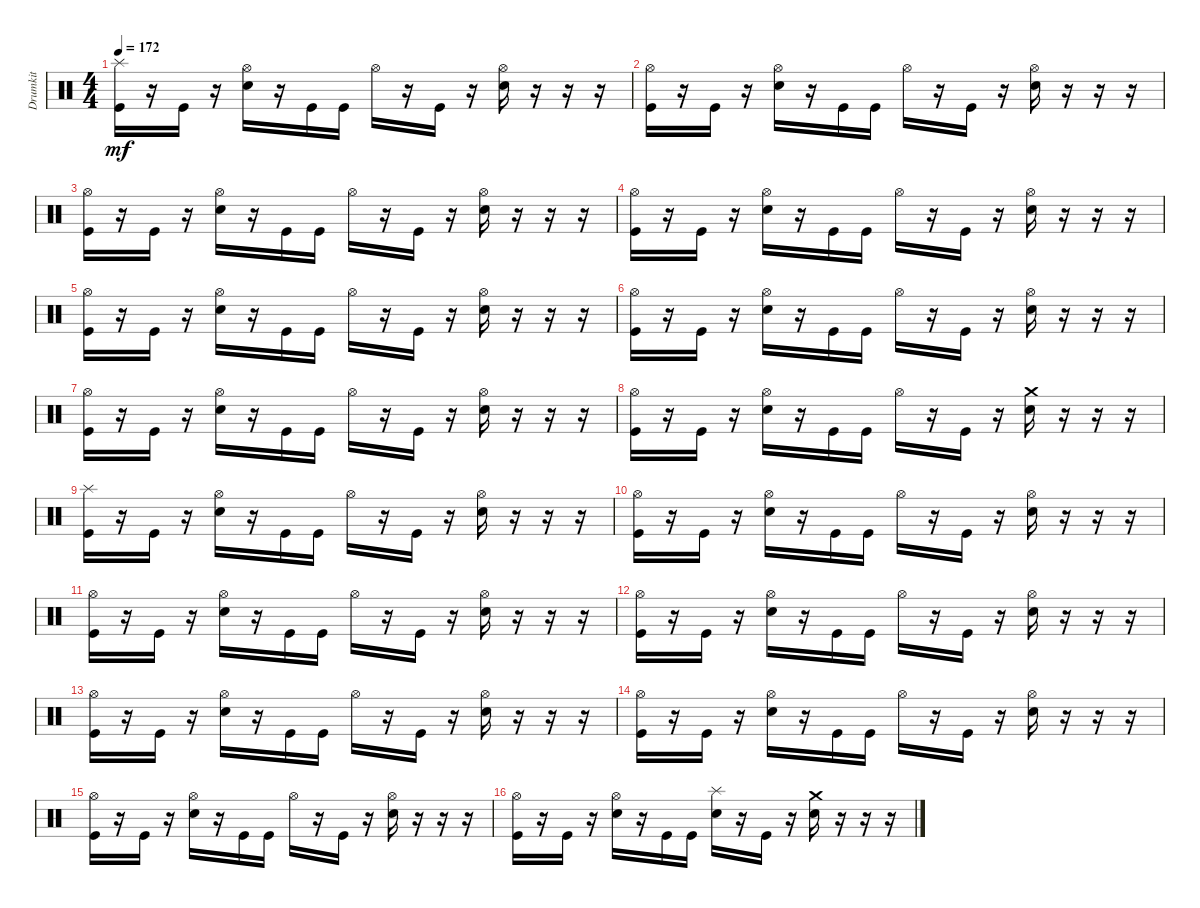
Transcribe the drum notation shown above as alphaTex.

\track ("Drumkit" "Drumkit") {instrument percussion}
\staff {score}
\articulation defaults
\ts (4 4)
\tempo 172
\clef neutral
\ks c
("Kick (hit)" "Splash (hit)").16{dy mf} r.16 "Kick (hit)".16 r.16 ("Hi-Hat (open)" "Snare (hit) 2").16 r.16 "Kick (hit)".16 "Kick (hit)".16 "Hi-Hat (open)".16 r.16 "Kick (hit)".16 r.16 ("Hi-Hat (open)" "Snare (hit) 2").16 r.16 r.16 r.16 |
("Hi-Hat (open)" "Kick (hit)").16 r.16 "Kick (hit)".16 r.16 ("Hi-Hat (open)" "Snare (hit) 2").16 r.16 "Kick (hit)".16 "Kick (hit)".16 "Hi-Hat (open)".16 r.16 "Kick (hit)".16 r.16 ("Hi-Hat (open)" "Snare (hit) 2").16 r.16 r.16 r.16 |
("Hi-Hat (open)" "Kick (hit)").16 r.16 "Kick (hit)".16 r.16 ("Hi-Hat (open)" "Snare (hit) 2").16 r.16 "Kick (hit)".16 "Kick (hit)".16 "Hi-Hat (open)".16 r.16 "Kick (hit)".16 r.16 ("Hi-Hat (open)" "Snare (hit) 2").16 r.16 r.16 r.16 |
("Hi-Hat (open)" "Kick (hit)").16 r.16 "Kick (hit)".16 r.16 ("Hi-Hat (open)" "Snare (hit) 2").16 r.16 "Kick (hit)".16 "Kick (hit)".16 "Hi-Hat (open)".16 r.16 "Kick (hit)".16 r.16 ("Hi-Hat (open)" "Snare (hit) 2").16 r.16 r.16 r.16 |
("Hi-Hat (open)" "Kick (hit)").16 r.16 "Kick (hit)".16 r.16 ("Hi-Hat (open)" "Snare (hit) 2").16 r.16 "Kick (hit)".16 "Kick (hit)".16 "Hi-Hat (open)".16 r.16 "Kick (hit)".16 r.16 ("Hi-Hat (open)" "Snare (hit) 2").16 r.16 r.16 r.16 |
("Hi-Hat (open)" "Kick (hit)").16 r.16 "Kick (hit)".16 r.16 ("Hi-Hat (open)" "Snare (hit) 2").16 r.16 "Kick (hit)".16 "Kick (hit)".16 "Hi-Hat (open)".16 r.16 "Kick (hit)".16 r.16 ("Hi-Hat (open)" "Snare (hit) 2").16 r.16 r.16 r.16 |
("Hi-Hat (open)" "Kick (hit)").16 r.16 "Kick (hit)".16 r.16 ("Hi-Hat (open)" "Snare (hit) 2").16 r.16 "Kick (hit)".16 "Kick (hit)".16 "Hi-Hat (open)".16 r.16 "Kick (hit)".16 r.16 ("Hi-Hat (open)" "Snare (hit) 2").16 r.16 r.16 r.16 |
("Hi-Hat (open)" "Kick (hit)").16 r.16 "Kick (hit)".16 r.16 ("Hi-Hat (open)" "Snare (hit) 2").16 r.16 "Kick (hit)".16 "Kick (hit)".16 "Hi-Hat (open)".16 r.16 "Kick (hit)".16 r.16 ("Snare (hit) 2" "Crash medium (hit)").16 r.16 r.16 r.16 |
("Kick (hit)" "Splash (hit)").16 r.16 "Kick (hit)".16 r.16 ("Hi-Hat (open)" "Snare (hit) 2").16 r.16 "Kick (hit)".16 "Kick (hit)".16 "Hi-Hat (open)".16 r.16 "Kick (hit)".16 r.16 ("Hi-Hat (open)" "Snare (hit) 2").16 r.16 r.16 r.16 |
("Hi-Hat (open)" "Kick (hit)").16 r.16 "Kick (hit)".16 r.16 ("Hi-Hat (open)" "Snare (hit) 2").16 r.16 "Kick (hit)".16 "Kick (hit)".16 "Hi-Hat (open)".16 r.16 "Kick (hit)".16 r.16 ("Hi-Hat (open)" "Snare (hit) 2").16 r.16 r.16 r.16 |
("Hi-Hat (open)" "Kick (hit)").16 r.16 "Kick (hit)".16 r.16 ("Hi-Hat (open)" "Snare (hit) 2").16 r.16 "Kick (hit)".16 "Kick (hit)".16 "Hi-Hat (open)".16 r.16 "Kick (hit)".16 r.16 ("Hi-Hat (open)" "Snare (hit) 2").16 r.16 r.16 r.16 |
("Hi-Hat (open)" "Kick (hit)").16 r.16 "Kick (hit)".16 r.16 ("Hi-Hat (open)" "Snare (hit) 2").16 r.16 "Kick (hit)".16 "Kick (hit)".16 "Hi-Hat (open)".16 r.16 "Kick (hit)".16 r.16 ("Hi-Hat (open)" "Snare (hit) 2").16 r.16 r.16 r.16 |
("Hi-Hat (open)" "Kick (hit)").16 r.16 "Kick (hit)".16 r.16 ("Hi-Hat (open)" "Snare (hit) 2").16 r.16 "Kick (hit)".16 "Kick (hit)".16 "Hi-Hat (open)".16 r.16 "Kick (hit)".16 r.16 ("Hi-Hat (open)" "Snare (hit) 2").16 r.16 r.16 r.16 |
("Hi-Hat (open)" "Kick (hit)").16 r.16 "Kick (hit)".16 r.16 ("Hi-Hat (open)" "Snare (hit) 2").16 r.16 "Kick (hit)".16 "Kick (hit)".16 "Hi-Hat (open)".16 r.16 "Kick (hit)".16 r.16 ("Hi-Hat (open)" "Snare (hit) 2").16 r.16 r.16 r.16 |
("Hi-Hat (open)" "Kick (hit)").16 r.16 "Kick (hit)".16 r.16 ("Hi-Hat (open)" "Snare (hit) 2").16 r.16 "Kick (hit)".16 "Kick (hit)".16 "Hi-Hat (open)".16 r.16 "Kick (hit)".16 r.16 ("Hi-Hat (open)" "Snare (hit) 2").16 r.16 r.16 r.16 |
("Hi-Hat (open)" "Kick (hit)").16 r.16 "Kick (hit)".16 r.16 ("Hi-Hat (open)" "Snare (hit) 2").16 r.16 "Kick (hit)".16 "Kick (hit)".16 ("Snare (hit) 2" "Splash (hit)").16 r.16 "Kick (hit)".16 r.16 ("Snare (hit) 2" "Crash medium (hit)").16 r.16 r.16 r.16
